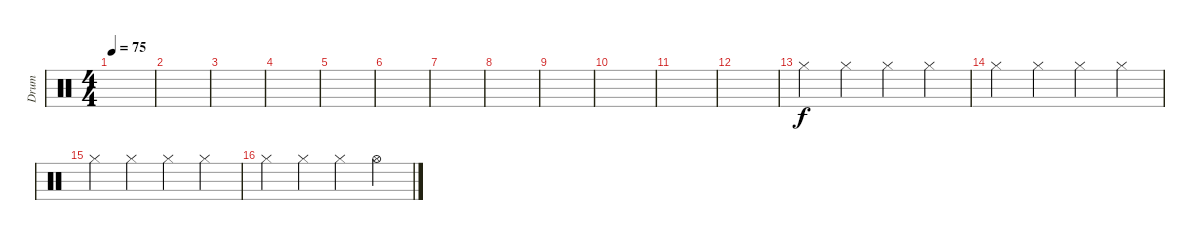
\track ("Drum" "Drum") {instrument percussion}
\staff {score}
\articulation defaults
\ts (4 4)
\tempo 75
\clef neutral
\ks c
|
|
|
|
|
|
|
|
|
|
|
|
"Hi-Hat (closed)".4{volume 7} "Hi-Hat (closed)".4 "Hi-Hat (closed)".4 "Hi-Hat (closed)".4 |
"Hi-Hat (closed)".4 "Hi-Hat (closed)".4 "Hi-Hat (closed)".4 "Hi-Hat (closed)".4 |
"Hi-Hat (closed)".4 "Hi-Hat (closed)".4 "Hi-Hat (closed)".4 "Hi-Hat (closed)".4 |
"Hi-Hat (closed)".4 "Hi-Hat (closed)".4 "Hi-Hat (closed)".4 "Hi-Hat (open)".4
